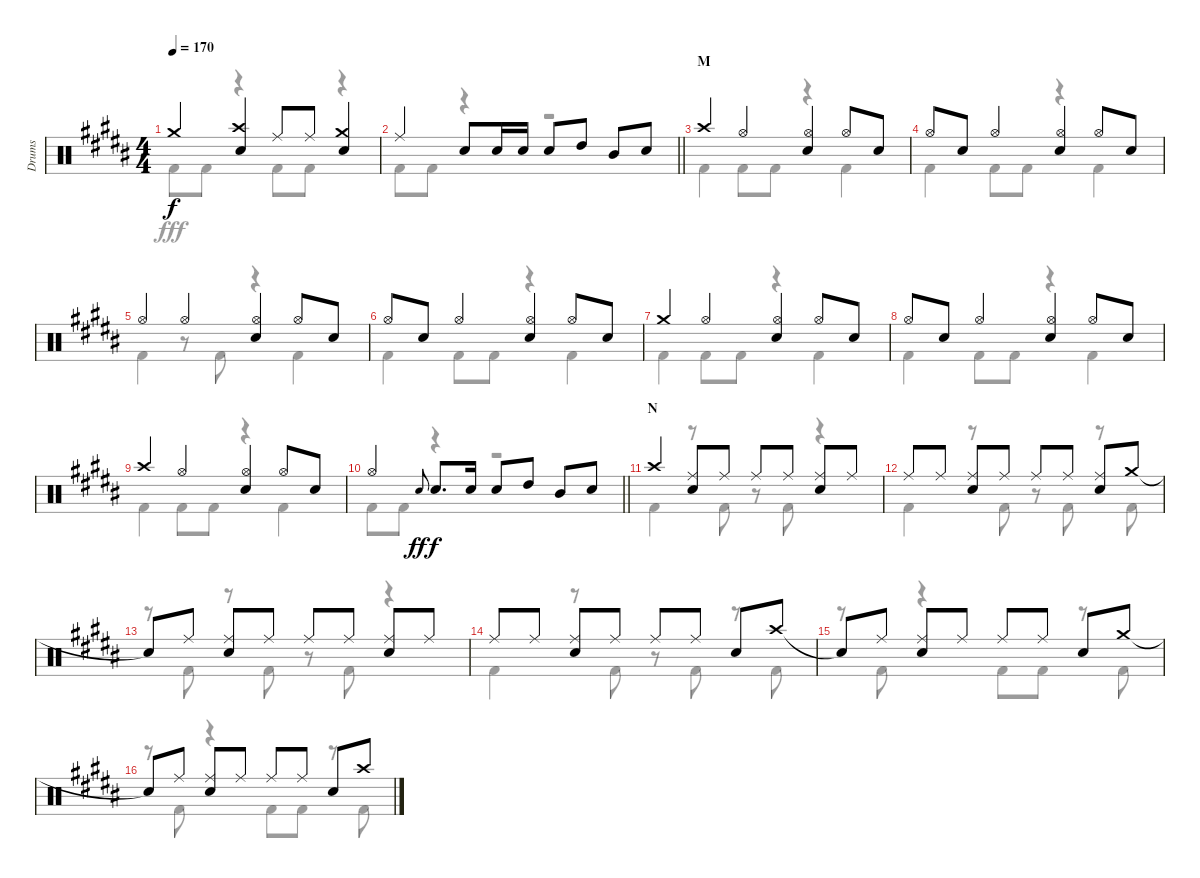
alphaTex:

\track ("Drums" "Drums") {instrument percussion}
\staff {score}
\articulation defaults
\voice
\ts (4 4)
\tempo 170
\clef neutral
\ks b "Crash medium (hit)".4{dy f}
("Crash high (hit)" "Snare (hit) 2").4 "Ride (middle)".8 "Ride (middle)".8 ("Crash medium (hit)" "Snare (hit) 2").4 |
\barLineRight lightlight "Ride (middle)".4 "Snare (hit) 2".8 "Snare (hit) 2".16 "Snare (hit) 2".16 "Snare (hit) 2".8 "High Tom (hit)".8 "Mid Tom (hit)".8 "Snare (hit) 2".8
|
\section ("" "M")
"Crash high (hit)".4 "Hi-Hat (open)".4 ("Hi-Hat (open)" "Snare (hit) 2").4 "Hi-Hat (open)".8 "Snare (hit) 2".8 |
"Hi-Hat (open)".8 "Snare (hit) 2".8 "Hi-Hat (open)".4 ("Hi-Hat (open)" "Snare (hit) 2").4 "Hi-Hat (open)".8 "Snare (hit) 2".8 |
"Hi-Hat (open)".4 "Hi-Hat (open)".4 ("Hi-Hat (open)" "Snare (hit) 2").4 "Hi-Hat (open)".8 "Snare (hit) 2".8 |
"Hi-Hat (open)".8 "Snare (hit) 2".8 "Hi-Hat (open)".4 ("Hi-Hat (open)" "Snare (hit) 2").4 "Hi-Hat (open)".8 "Snare (hit) 2".8 |
"Crash medium (hit)".4 "Hi-Hat (open)".4 ("Hi-Hat (open)" "Snare (hit) 2").4 "Hi-Hat (open)".8 "Snare (hit) 2".8 |
"Hi-Hat (open)".8 "Snare (hit) 2".8 "Hi-Hat (open)".4 ("Hi-Hat (open)" "Snare (hit) 2").4 "Hi-Hat (open)".8 "Snare (hit) 2".8 |
"Crash high (hit)".4 "Hi-Hat (open)".4 ("Hi-Hat (open)" "Snare (hit) 2").4 "Hi-Hat (open)".8 "Snare (hit) 2".8 |
\barLineRight lightlight "Hi-Hat (open)".4 "Snare (hit) 2".8{gr onbeat dy ff} "Snare (hit) 2".8{d dy f} "Snare (hit) 2".16 "Snare (hit) 2".8 "High Tom (hit)".8 "Mid Tom (hit)".8 "Snare (hit) 2".8
|
\section ("" "N")
"Crash high (hit)".4 ("Ride (middle)" "Snare (hit) 2").8 "Ride (middle)".8 "Ride (middle)".8 "Ride (middle)".8 ("Ride (middle)" "Snare (hit) 2").8 "Ride (middle)".8 |
"Ride (middle)".8 "Ride (middle)".8 ("Ride (middle)" "Snare (hit) 2").8 "Ride (middle)".8 "Ride (middle)".8 "Ride (middle)".8 ("Ride (middle)" "Snare (hit) 2").8 "Crash medium (hit)".8 |
"Snare (hit)"{t}.8 "Ride (middle)".8 ("Ride (middle)" "Snare (hit) 2").8 "Ride (middle)".8 "Ride (middle)".8 "Ride (middle)".8 ("Ride (middle)" "Snare (hit) 2").8 "Ride (middle)".8 |
"Ride (middle)".8 "Ride (middle)".8 ("Ride (middle)" "Snare (hit) 2").8 "Ride (middle)".8 "Ride (middle)".8 "Ride (middle)".8 "Snare (hit) 2".8 "Crash high (hit)".8 |
"Snare (hit)"{t}.8 "Ride (middle)".8 ("Ride (middle)" "Snare (hit) 2").8 "Ride (middle)".8 "Ride (middle)".8 "Ride (middle)".8 "Snare (hit) 2".8 "Crash medium (hit)".8 |
"Snare (hit)"{t}.8 "Ride (middle)".8 ("Ride (middle)" "Snare (hit) 2").8 "Ride (middle)".8 "Ride (middle)".8 "Ride (middle)".8 "Snare (hit) 2".8 "Crash high (hit)".8
\voice
\clef neutral
\ottava regular
\simile none
\ks b "Kick (hit) 2".8{dy fff} "Kick (hit) 2".8
r.4 "Kick (hit) 2".8 "Kick (hit) 2".8 r.4 |
\barLineRight lightlight "Kick (hit) 2".8 "Kick (hit) 2".8
r.4 r.2 |
"Kick (hit) 2".4 "Kick (hit) 2".8 "Kick (hit) 2".8 r.4 "Kick (hit) 2".4 |
"Kick (hit) 2".4 "Kick (hit) 2".8 "Kick (hit) 2".8 r.4 "Kick (hit) 2".4 |
"Kick (hit) 2".4 r.8 "Kick (hit) 2".8 r.4 "Kick (hit) 2".4 |
"Kick (hit) 2".4 "Kick (hit) 2".8 "Kick (hit) 2".8 r.4 "Kick (hit) 2".4 |
"Kick (hit) 2".4 "Kick (hit) 2".8 "Kick (hit) 2".8 r.4 "Kick (hit) 2".4 |
"Kick (hit) 2".4 "Kick (hit) 2".8 "Kick (hit) 2".8 r.4 "Kick (hit) 2".4 |
"Kick (hit) 2".4 "Kick (hit) 2".8 "Kick (hit) 2".8 r.4 "Kick (hit) 2".4 |
\barLineRight lightlight "Kick (hit) 2".8 "Kick (hit) 2".8
r.4 r.2 |
"Kick (hit) 2".4 r.8 "Kick (hit) 2".8 r.8 "Kick (hit) 2".8 r.4 |
"Kick (hit) 2".4 r.8 "Kick (hit) 2".8 r.8 "Kick (hit) 2".8 r.8 "Kick (hit) 2".8 |
r.8 "Kick (hit) 2".8 r.8 "Kick (hit) 2".8 r.8 "Kick (hit) 2".8 r.4 |
"Kick (hit) 2".4 r.8 "Kick (hit) 2".8 r.8 "Kick (hit) 2".8 r.8 "Kick (hit) 2".8 |
r.8 "Kick (hit) 2".8 r.4 "Kick (hit) 2".8 "Kick (hit) 2".8 r.8 "Kick (hit) 2".8 |
r.8 "Kick (hit) 2".8 r.4 "Kick (hit) 2".8 "Kick (hit) 2".8 r.8 "Kick (hit) 2".8
